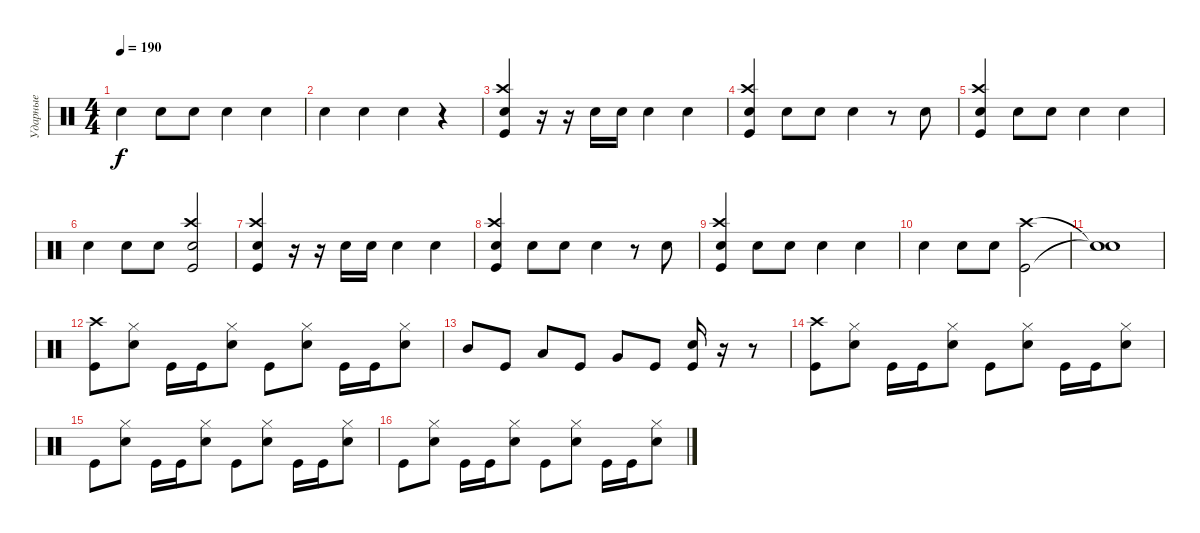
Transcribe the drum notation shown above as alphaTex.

\track ("Ударные" "Ударные") {instrument percussion}
\staff {score}
\articulation defaults
\ts (4 4)
\tempo 190
\clef neutral
\ks c "Electric Snare (hit)".4{dy f} "Electric Snare (hit)".8 "Electric Snare (hit)".8 "Electric Snare (hit)".4 "Electric Snare (hit)".4
|
"Electric Snare (hit)".4 "Electric Snare (hit)".4 "Electric Snare (hit)".4 r.4 |
("Crash high (hit)" "Electric Snare (hit)" "Kick (hit)").4 r.16 r.16 "Electric Snare (hit)".16 "Electric Snare (hit)".16 "Electric Snare (hit)".4 "Electric Snare (hit)".4 |
("Crash high (hit)" "Electric Snare (hit)" "Kick (hit)").4 "Electric Snare (hit)".8 "Electric Snare (hit)".8 "Electric Snare (hit)".4 r.8 "Electric Snare (hit)".8 |
("Crash high (hit)" "Electric Snare (hit)" "Kick (hit)").4 "Electric Snare (hit)".8 "Electric Snare (hit)".8 "Electric Snare (hit)".4 "Electric Snare (hit)".4 |
"Electric Snare (hit)".4 "Electric Snare (hit)".8 "Electric Snare (hit)".8 ("Crash high (hit)" "Electric Snare (hit)" "Kick (hit)").2 |
("Crash high (hit)" "Electric Snare (hit)" "Kick (hit)").4 r.16 r.16 "Electric Snare (hit)".16 "Electric Snare (hit)".16 "Electric Snare (hit)".4 "Electric Snare (hit)".4 |
("Crash high (hit)" "Electric Snare (hit)" "Kick (hit)").4 "Electric Snare (hit)".8 "Electric Snare (hit)".8 "Electric Snare (hit)".4 r.8 "Electric Snare (hit)".8 |
("Crash high (hit)" "Electric Snare (hit)" "Kick (hit)").4 "Electric Snare (hit)".8 "Electric Snare (hit)".8 "Electric Snare (hit)".4 "Electric Snare (hit)".4 |
"Electric Snare (hit)".4 "Electric Snare (hit)".8 "Electric Snare (hit)".8 ("Crash high (hit)" "Kick (hit)").2 |
("Snare (hit)"{t} "Snare (hit)"{t}).1 |
("Crash high (hit)" "Kick (hit)").8 ("Hi-Hat (closed)" "Electric Snare (hit)").8 "Kick (hit)".16 "Kick (hit)".16 ("Hi-Hat (closed)" "Electric Snare (hit)").8 "Kick (hit)".8 ("Hi-Hat (closed)" "Electric Snare (hit)").8 "Kick (hit)".16 "Kick (hit)".16 ("Hi-Hat (closed)" "Electric Snare (hit)").8 |
"Mid Tom (hit)".8 "Kick (hit)".8 "Low Tom (hit)".8 "Kick (hit)".8 "Very Low Tom (hit)".8 "Kick (hit)".8 ("Electric Snare (hit)" "Kick (hit)").16 r.16 r.8 |
("Crash high (hit)" "Kick (hit)").8 ("Hi-Hat (closed)" "Electric Snare (hit)").8 "Kick (hit)".16 "Kick (hit)".16 ("Hi-Hat (closed)" "Electric Snare (hit)").8 "Kick (hit)".8 ("Hi-Hat (closed)" "Electric Snare (hit)").8 "Kick (hit)".16 "Kick (hit)".16 ("Hi-Hat (closed)" "Electric Snare (hit)").8 |
"Kick (hit)".8 ("Hi-Hat (closed)" "Electric Snare (hit)").8 "Kick (hit)".16 "Kick (hit)".16 ("Hi-Hat (closed)" "Electric Snare (hit)").8 "Kick (hit)".8 ("Hi-Hat (closed)" "Electric Snare (hit)").8 "Kick (hit)".16 "Kick (hit)".16 ("Hi-Hat (closed)" "Electric Snare (hit)").8 |
"Kick (hit)".8 ("Hi-Hat (closed)" "Electric Snare (hit)").8 "Kick (hit)".16 "Kick (hit)".16 ("Hi-Hat (closed)" "Electric Snare (hit)").8 "Kick (hit)".8 ("Hi-Hat (closed)" "Electric Snare (hit)").8 "Kick (hit)".16 "Kick (hit)".16 ("Hi-Hat (closed)" "Electric Snare (hit)").8
